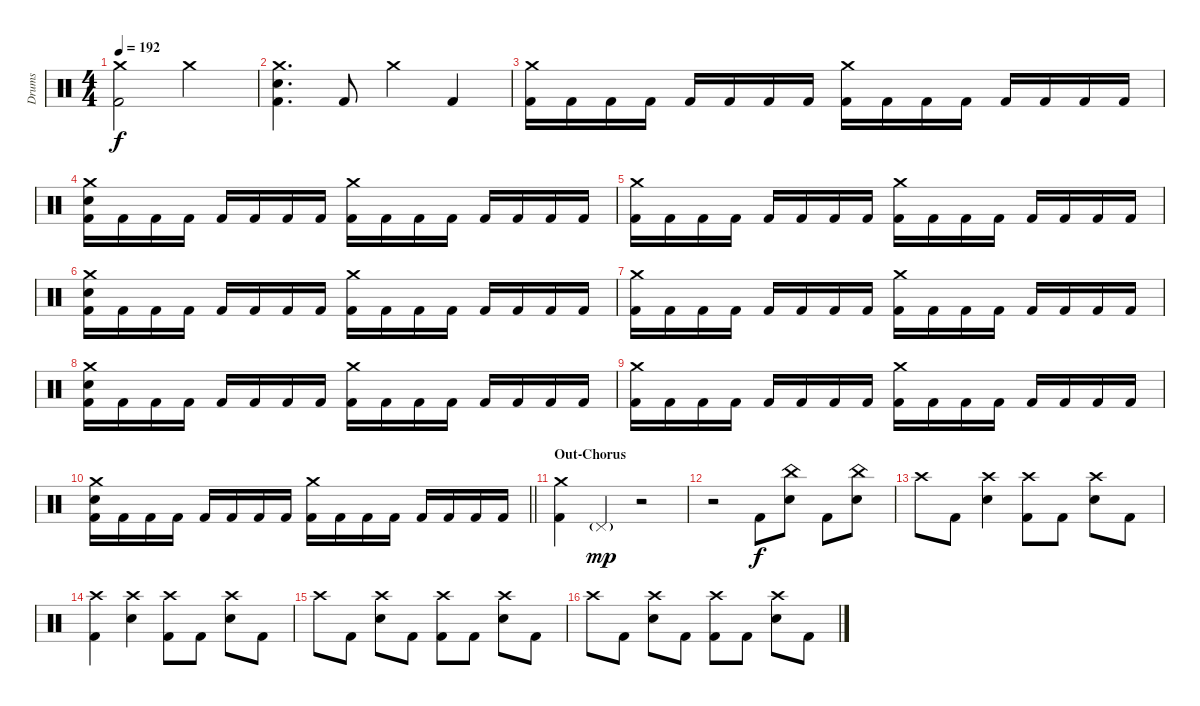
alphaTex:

\track ("Drums" "Drums") {instrument percussion}
\staff {score}
\articulation defaults
\ts (4 4)
\tempo 192
\clef neutral
\ks c
("Crash medium (hit)" "Kick (hit) 2").2{dy f} "Crash medium (hit)".2 |
("Crash medium (hit)" "Electric Snare (hit)" "Kick (hit) 2").4{d} "Kick (hit) 2".8 "Crash medium (hit)".4 "Kick (hit) 2".4 |
("Crash medium (hit)" "Kick (hit) 2").16 "Kick (hit) 2".16 "Kick (hit) 2".16 "Kick (hit) 2".16 "Kick (hit) 2".16 "Kick (hit) 2".16 "Kick (hit) 2".16 "Kick (hit) 2".16 ("Crash medium (hit)" "Kick (hit) 2").16 "Kick (hit) 2".16 "Kick (hit) 2".16 "Kick (hit) 2".16 "Kick (hit) 2".16 "Kick (hit) 2".16 "Kick (hit) 2".16 "Kick (hit) 2".16 |
("Crash medium (hit)" "Electric Snare (hit)" "Kick (hit) 2").16 "Kick (hit) 2".16 "Kick (hit) 2".16 "Kick (hit) 2".16 "Kick (hit) 2".16 "Kick (hit) 2".16 "Kick (hit) 2".16 "Kick (hit) 2".16 ("Crash medium (hit)" "Kick (hit) 2").16 "Kick (hit) 2".16 "Kick (hit) 2".16 "Kick (hit) 2".16 "Kick (hit) 2".16 "Kick (hit) 2".16 "Kick (hit) 2".16 "Kick (hit) 2".16 |
("Crash medium (hit)" "Kick (hit) 2").16 "Kick (hit) 2".16 "Kick (hit) 2".16 "Kick (hit) 2".16 "Kick (hit) 2".16 "Kick (hit) 2".16 "Kick (hit) 2".16 "Kick (hit) 2".16 ("Crash medium (hit)" "Kick (hit) 2").16 "Kick (hit) 2".16 "Kick (hit) 2".16 "Kick (hit) 2".16 "Kick (hit) 2".16 "Kick (hit) 2".16 "Kick (hit) 2".16 "Kick (hit) 2".16 |
("Crash medium (hit)" "Electric Snare (hit)" "Kick (hit) 2").16 "Kick (hit) 2".16 "Kick (hit) 2".16 "Kick (hit) 2".16 "Kick (hit) 2".16 "Kick (hit) 2".16 "Kick (hit) 2".16 "Kick (hit) 2".16 ("Crash medium (hit)" "Kick (hit) 2").16 "Kick (hit) 2".16 "Kick (hit) 2".16 "Kick (hit) 2".16 "Kick (hit) 2".16 "Kick (hit) 2".16 "Kick (hit) 2".16 "Kick (hit) 2".16 |
("Crash medium (hit)" "Kick (hit) 2").16 "Kick (hit) 2".16 "Kick (hit) 2".16 "Kick (hit) 2".16 "Kick (hit) 2".16 "Kick (hit) 2".16 "Kick (hit) 2".16 "Kick (hit) 2".16 ("Crash medium (hit)" "Kick (hit) 2").16 "Kick (hit) 2".16 "Kick (hit) 2".16 "Kick (hit) 2".16 "Kick (hit) 2".16 "Kick (hit) 2".16 "Kick (hit) 2".16 "Kick (hit) 2".16 |
("Crash medium (hit)" "Electric Snare (hit)" "Kick (hit) 2").16 "Kick (hit) 2".16 "Kick (hit) 2".16 "Kick (hit) 2".16 "Kick (hit) 2".16 "Kick (hit) 2".16 "Kick (hit) 2".16 "Kick (hit) 2".16 ("Crash medium (hit)" "Kick (hit) 2").16 "Kick (hit) 2".16 "Kick (hit) 2".16 "Kick (hit) 2".16 "Kick (hit) 2".16 "Kick (hit) 2".16 "Kick (hit) 2".16 "Kick (hit) 2".16 |
("Crash medium (hit)" "Kick (hit) 2").16 "Kick (hit) 2".16 "Kick (hit) 2".16 "Kick (hit) 2".16 "Kick (hit) 2".16 "Kick (hit) 2".16 "Kick (hit) 2".16 "Kick (hit) 2".16 ("Crash medium (hit)" "Kick (hit) 2").16 "Kick (hit) 2".16 "Kick (hit) 2".16 "Kick (hit) 2".16 "Kick (hit) 2".16 "Kick (hit) 2".16 "Kick (hit) 2".16 "Kick (hit) 2".16 |
\barLineRight lightlight
("Crash medium (hit)" "Electric Snare (hit)" "Kick (hit) 2").16 "Kick (hit) 2".16 "Kick (hit) 2".16 "Kick (hit) 2".16 "Kick (hit) 2".16 "Kick (hit) 2".16 "Kick (hit) 2".16 "Kick (hit) 2".16 ("Crash medium (hit)" "Kick (hit) 2").16 "Kick (hit) 2".16 "Kick (hit) 2".16 "Kick (hit) 2".16 "Kick (hit) 2".16 "Kick (hit) 2".16 "Kick (hit) 2".16 "Kick (hit) 2".16 |
\section ("" "Out-Chorus")
("Crash medium (hit)" "Kick (hit) 2").4 "Pedal Hi-Hat (hit)"{g}.4{dy mp} r.2 |
r.2 "Kick (hit) 2".8{dy f} ("China (hit)" "Electric Snare (hit)").8 "Kick (hit) 2".8 ("China (hit)" "Electric Snare (hit)").8 |
"Crash high (hit)".8 "Kick (hit) 2".8 ("Crash high (hit)" "Electric Snare (hit)").4 ("Crash high (hit)" "Kick (hit) 2").8 "Kick (hit) 2".8 ("Crash high (hit)" "Electric Snare (hit)").8 "Kick (hit) 2".8 |
("Crash high (hit)" "Kick (hit) 2").4 ("Crash high (hit)" "Electric Snare (hit)").4 ("Crash high (hit)" "Kick (hit) 2").8 "Kick (hit) 2".8 ("Crash high (hit)" "Electric Snare (hit)").8 "Kick (hit) 2".8 |
"Crash high (hit)".8 "Kick (hit) 2".8 ("Crash high (hit)" "Electric Snare (hit)").8 "Kick (hit) 2".8 ("Crash high (hit)" "Kick (hit) 2").8 "Kick (hit) 2".8 ("Crash high (hit)" "Electric Snare (hit)").8 "Kick (hit) 2".8 |
"Crash high (hit)".8 "Kick (hit) 2".8 ("Crash high (hit)" "Electric Snare (hit)").8 "Kick (hit) 2".8 ("Crash high (hit)" "Kick (hit) 2").8 "Kick (hit) 2".8 ("Crash high (hit)" "Electric Snare (hit)").8 "Kick (hit) 2".8
